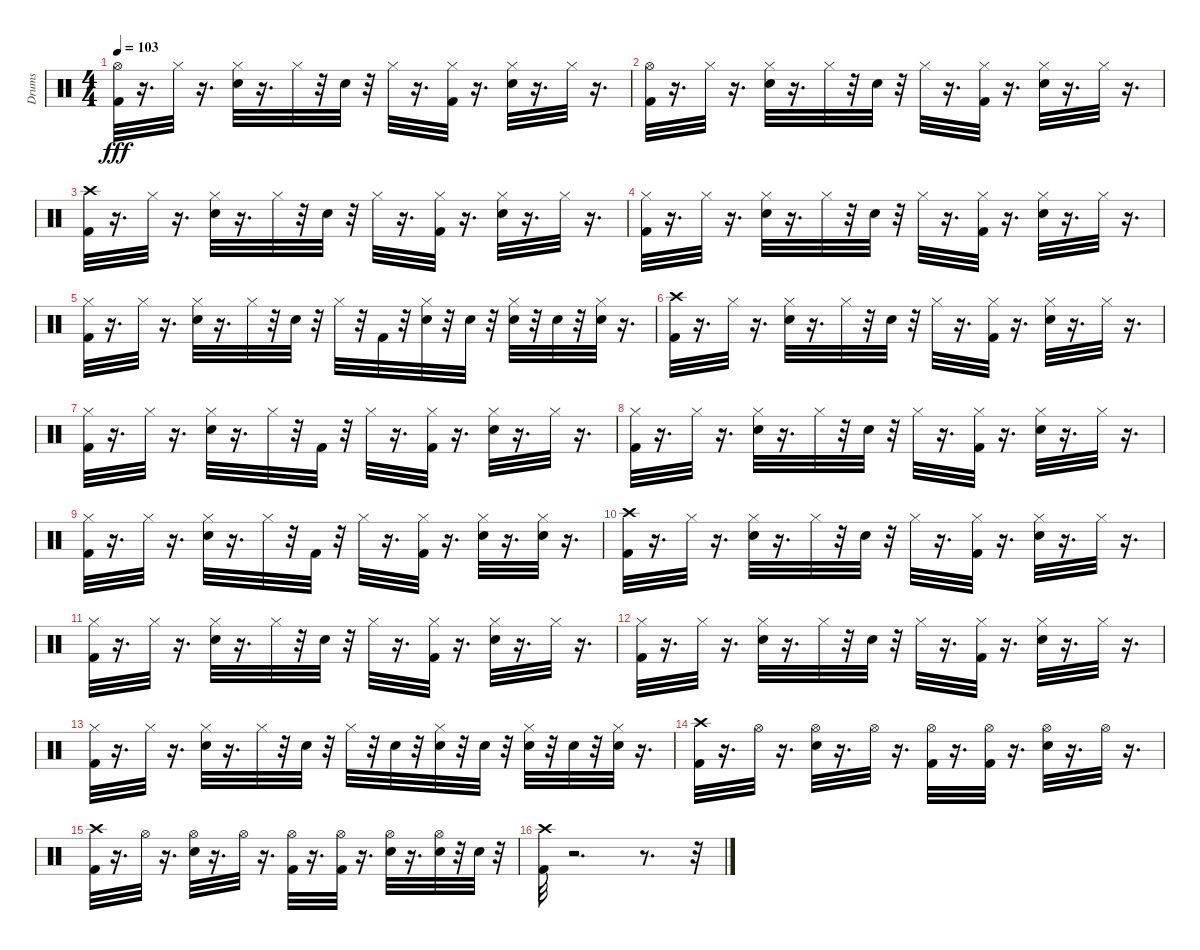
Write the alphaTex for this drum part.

\track ("Drums" "Drums") {instrument percussion}
\staff {score}
\articulation defaults
\ts (4 4)
\tempo 103
\clef neutral
\ks c
("Hi-Hat (open)" "Kick (hit) 2").32{dy fff} r.16{d} "Hi-Hat (closed)".32 r.16{d} ("Hi-Hat (closed)" "Electric Snare (hit)").32 r.16{d} "Hi-Hat (closed)".32 r.32 "Electric Snare (hit)".32 r.32 "Hi-Hat (closed)".32 r.16{d} ("Hi-Hat (closed)" "Kick (hit) 2").32 r.16{d} ("Electric Snare (hit)" "Hi-Hat (closed)").32 r.16{d} "Hi-Hat (closed)".32 r.16{d} |
("Hi-Hat (open)" "Kick (hit) 2").32 r.16{d} "Hi-Hat (closed)".32 r.16{d} ("Electric Snare (hit)" "Hi-Hat (closed)").32 r.16{d} "Hi-Hat (closed)".32 r.32 "Electric Snare (hit)".32 r.32 "Hi-Hat (closed)".32 r.16{d} ("Kick (hit) 2" "Hi-Hat (closed)").32 r.16{d} ("Electric Snare (hit)" "Hi-Hat (closed)").32 r.16{d} "Hi-Hat (closed)".32 r.16{d} |
("Crash high (hit)" "Kick (hit) 2").32 r.16{d} "Hi-Hat (closed)".32 r.16{d} ("Electric Snare (hit)" "Hi-Hat (closed)").32 r.16{d} "Hi-Hat (closed)".32 r.32 "Electric Snare (hit)".32 r.32 "Hi-Hat (closed)".32 r.16{d} ("Hi-Hat (closed)" "Kick (hit) 2").32 r.16{d} ("Electric Snare (hit)" "Hi-Hat (closed)").32 r.16{d} "Hi-Hat (closed)".32 r.16{d} |
("Kick (hit) 2" "Hi-Hat (closed)").32 r.16{d} "Hi-Hat (closed)".32 r.16{d} ("Hi-Hat (closed)" "Electric Snare (hit)").32 r.16{d} "Hi-Hat (closed)".32 r.32 "Electric Snare (hit)".32 r.32 "Hi-Hat (closed)".32 r.16{d} ("Hi-Hat (closed)" "Kick (hit) 2").32 r.16{d} ("Hi-Hat (closed)" "Electric Snare (hit)").32 r.16{d} "Hi-Hat (closed)".32 r.16{d} |
("Hi-Hat (closed)" "Kick (hit) 2").32 r.16{d} "Hi-Hat (closed)".32 r.16{d} ("Electric Snare (hit)" "Hi-Hat (closed)").32 r.16{d} "Hi-Hat (closed)".32 r.32 "Electric Snare (hit)".32 r.32 "Hi-Hat (closed)".32 r.32 "Kick (hit) 2".32 r.32 ("Electric Snare (hit)" "Hi-Hat (closed)").32 r.32 "Electric Snare (hit)".32 r.32 ("Electric Snare (hit)" "Hi-Hat (closed)").32 r.32 "Electric Snare (hit)".32 r.32 ("Electric Snare (hit)" "Hi-Hat (closed)").32 r.16{d} |
("Crash high (hit)" "Kick (hit) 2").32 r.16{d} "Hi-Hat (closed)".32 r.16{d} ("Hi-Hat (closed)" "Electric Snare (hit)").32 r.16{d} "Hi-Hat (closed)".32 r.32 "Electric Snare (hit)".32 r.32 "Hi-Hat (closed)".32 r.16{d} ("Hi-Hat (closed)" "Kick (hit) 2").32 r.16{d} ("Electric Snare (hit)" "Hi-Hat (closed)").32 r.16{d} "Hi-Hat (closed)".32 r.16{d} |
("Hi-Hat (closed)" "Kick (hit) 2").32 r.16{d} "Hi-Hat (closed)".32 r.16{d} ("Hi-Hat (closed)" "Electric Snare (hit)").32 r.16{d} "Hi-Hat (closed)".32 r.32 "Kick (hit) 2".32 r.32 "Hi-Hat (closed)".32 r.16{d} ("Hi-Hat (closed)" "Kick (hit) 2").32 r.16{d} ("Hi-Hat (closed)" "Electric Snare (hit)").32 r.16{d} "Hi-Hat (closed)".32 r.16{d} |
("Kick (hit) 2" "Hi-Hat (closed)").32 r.16{d} "Hi-Hat (closed)".32 r.16{d} ("Electric Snare (hit)" "Hi-Hat (closed)").32 r.16{d} "Hi-Hat (closed)".32 r.32 "Electric Snare (hit)".32 r.32 "Hi-Hat (closed)".32 r.16{d} ("Hi-Hat (closed)" "Kick (hit) 2").32 r.16{d} ("Electric Snare (hit)" "Hi-Hat (closed)").32 r.16{d} "Hi-Hat (closed)".32 r.16{d} |
("Kick (hit) 2" "Hi-Hat (closed)").32 r.16{d} "Hi-Hat (closed)".32 r.16{d} ("Hi-Hat (closed)" "Electric Snare (hit)").32 r.16{d} "Hi-Hat (closed)".32 r.32 "Kick (hit) 2".32 r.32 "Hi-Hat (closed)".32 r.16{d} ("Hi-Hat (closed)" "Kick (hit) 2").32 r.16{d} ("Electric Snare (hit)" "Hi-Hat (closed)").32 r.16{d} ("Hi-Hat (closed)" "Electric Snare (hit)").32 r.16{d} |
("Crash high (hit)" "Kick (hit) 2").32 r.16{d} "Hi-Hat (closed)".32 r.16{d} ("Hi-Hat (closed)" "Electric Snare (hit)").32 r.16{d} "Hi-Hat (closed)".32 r.32 "Electric Snare (hit)".32 r.32 "Hi-Hat (closed)".32 r.16{d} ("Hi-Hat (closed)" "Kick (hit) 2").32 r.16{d} ("Electric Snare (hit)" "Hi-Hat (closed)").32 r.16{d} "Hi-Hat (closed)".32 r.16{d} |
("Hi-Hat (closed)" "Kick (hit) 2").32 r.16{d} "Hi-Hat (closed)".32 r.16{d} ("Electric Snare (hit)" "Hi-Hat (closed)").32 r.16{d} "Hi-Hat (closed)".32 r.32 "Electric Snare (hit)".32 r.32 "Hi-Hat (closed)".32 r.16{d} ("Kick (hit) 2" "Hi-Hat (closed)").32 r.16{d} ("Hi-Hat (closed)" "Electric Snare (hit)").32 r.16{d} "Hi-Hat (closed)".32 r.16{d} |
("Kick (hit) 2" "Hi-Hat (closed)").32 r.16{d} "Hi-Hat (closed)".32 r.16{d} ("Hi-Hat (closed)" "Electric Snare (hit)").32 r.16{d} "Hi-Hat (closed)".32 r.32 "Electric Snare (hit)".32 r.32 "Hi-Hat (closed)".32 r.16{d} ("Hi-Hat (closed)" "Kick (hit) 2").32 r.16{d} ("Hi-Hat (closed)" "Electric Snare (hit)").32 r.16{d} "Hi-Hat (closed)".32 r.16{d} |
("Kick (hit) 2" "Hi-Hat (closed)").32 r.16{d} "Hi-Hat (closed)".32 r.16{d} ("Electric Snare (hit)" "Hi-Hat (closed)").32 r.16{d} "Hi-Hat (closed)".32 r.32 "Electric Snare (hit)".32 r.32 "Hi-Hat (closed)".32 r.32 "Electric Snare (hit)".32 r.32 ("Electric Snare (hit)" "Hi-Hat (closed)").32 r.32 "Electric Snare (hit)".32 r.32 ("Hi-Hat (closed)" "Electric Snare (hit)").32 r.32 "Electric Snare (hit)".32 r.32 ("Hi-Hat (closed)" "Electric Snare (hit)").32 r.16{d} |
("Crash high (hit)" "Kick (hit) 2").32 r.16{d} "Hi-Hat (open)".32 r.16{d} ("Hi-Hat (open)" "Electric Snare (hit)").32 r.16{d} "Hi-Hat (open)".32 r.16{d} ("Kick (hit) 2" "Hi-Hat (open)").32 r.16{d} ("Kick (hit) 2" "Hi-Hat (open)").32 r.16{d} ("Hi-Hat (open)" "Electric Snare (hit)").32 r.16{d} "Hi-Hat (open)".32 r.16{d} |
("Crash high (hit)" "Kick (hit) 2").32 r.16{d} "Hi-Hat (open)".32 r.16{d} ("Electric Snare (hit)" "Hi-Hat (open)").32 r.16{d} "Hi-Hat (open)".32 r.16{d} ("Kick (hit) 2" "Hi-Hat (open)").32 r.16{d} ("Kick (hit) 2" "Hi-Hat (open)").32 r.16{d} ("Hi-Hat (open)" "Electric Snare (hit)").32 r.16{d} ("Electric Snare (hit)" "Hi-Hat (open)").32 r.32 "Electric Snare (hit)".32 r.32 |
("Crash high (hit)" "Kick (hit) 2").32 r.2{d} r.8{d} r.32
